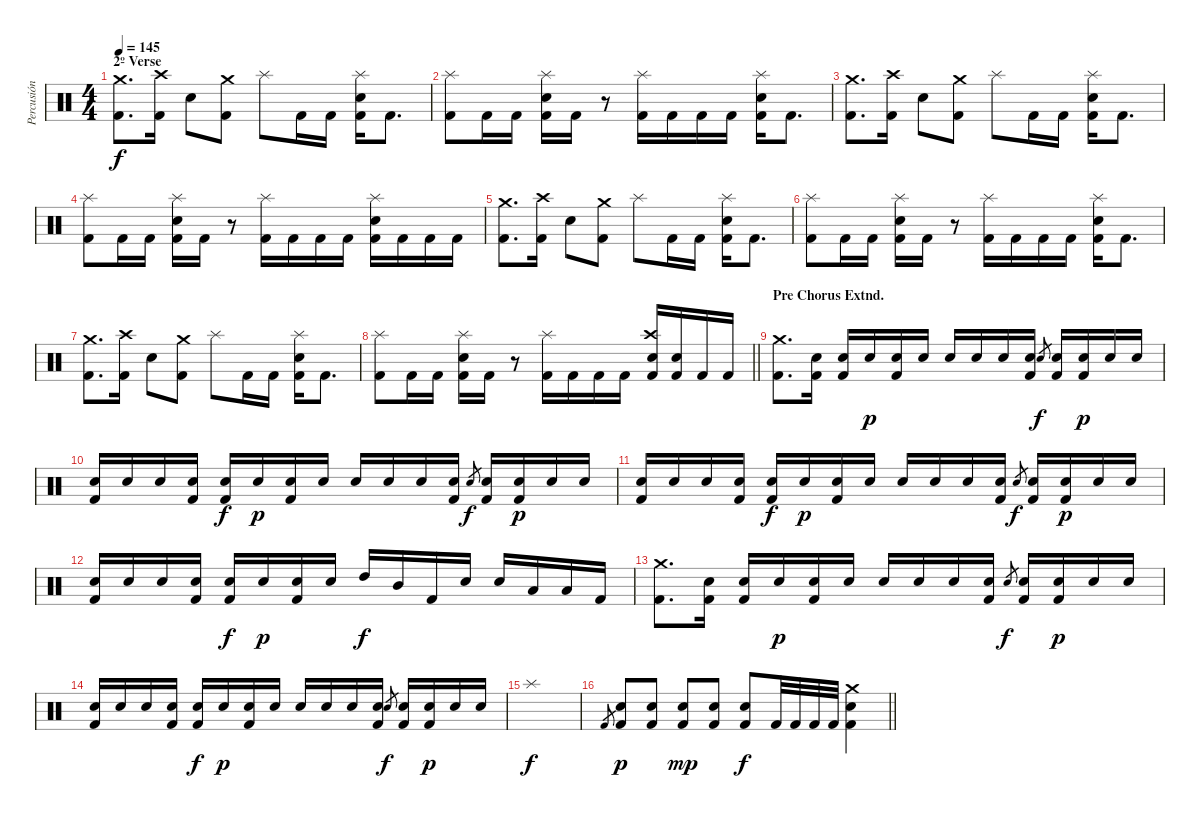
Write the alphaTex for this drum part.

\track ("Percusión" "Percusión") {instrument percussion}
\staff {score}
\articulation defaults
\ts (4 4)
\section ("" "2º Verse")
\tempo 145
\clef neutral
\ks c
("Crash medium (hit)" "Kick (hit) 2").8{d dy f} ("Crash high (hit)" "Kick (hit) 2").16 "Electric Snare (hit)".8 ("Crash medium (hit)" "Kick (hit) 2").8 "Splash (hit)".8 "Kick (hit) 2".16 "Kick (hit) 2".16 ("Splash (hit)" "Electric Snare (hit)" "Kick (hit) 2").16 "Kick (hit) 2".8{d} |
("Splash (hit)" "Kick (hit) 2").8 "Kick (hit) 2".16 "Kick (hit) 2".16 ("Splash (hit)" "Electric Snare (hit)" "Kick (hit) 2").16 "Kick (hit) 2".16 r.8 ("Splash (hit)" "Kick (hit) 2").16 "Kick (hit) 2".16 "Kick (hit) 2".16 "Kick (hit) 2".16 ("Splash (hit)" "Electric Snare (hit)" "Kick (hit) 2").16 "Kick (hit) 2".8{d} |
("Crash medium (hit)" "Kick (hit) 2").8{d} ("Crash high (hit)" "Kick (hit) 2").16 "Electric Snare (hit)".8 ("Crash medium (hit)" "Kick (hit) 2").8 "Splash (hit)".8 "Kick (hit) 2".16 "Kick (hit) 2".16 ("Splash (hit)" "Electric Snare (hit)" "Kick (hit) 2").16 "Kick (hit) 2".8{d} |
("Splash (hit)" "Kick (hit) 2").8 "Kick (hit) 2".16 "Kick (hit) 2".16 ("Splash (hit)" "Electric Snare (hit)" "Kick (hit) 2").16 "Kick (hit) 2".16 r.8 ("Splash (hit)" "Kick (hit) 2").16 "Kick (hit) 2".16 "Kick (hit) 2".16 "Kick (hit) 2".16 ("Splash (hit)" "Electric Snare (hit)" "Kick (hit) 2").16 "Kick (hit) 2".16 "Kick (hit) 2".16 "Kick (hit) 2".16 |
("Crash medium (hit)" "Kick (hit) 2").8{d} ("Crash high (hit)" "Kick (hit) 2").16 "Electric Snare (hit)".8 ("Crash medium (hit)" "Kick (hit) 2").8 "Splash (hit)".8 "Kick (hit) 2".16 "Kick (hit) 2".16 ("Splash (hit)" "Electric Snare (hit)" "Kick (hit) 2").16 "Kick (hit) 2".8{d} |
("Splash (hit)" "Kick (hit) 2").8 "Kick (hit) 2".16 "Kick (hit) 2".16 ("Splash (hit)" "Electric Snare (hit)" "Kick (hit) 2").16 "Kick (hit) 2".16 r.8 ("Splash (hit)" "Kick (hit) 2").16 "Kick (hit) 2".16 "Kick (hit) 2".16 "Kick (hit) 2".16 ("Splash (hit)" "Electric Snare (hit)" "Kick (hit) 2").16 "Kick (hit) 2".8{d} |
("Crash medium (hit)" "Kick (hit) 2").8{d} ("Crash high (hit)" "Kick (hit) 2").16 "Electric Snare (hit)".8 ("Crash medium (hit)" "Kick (hit) 2").8 "Splash (hit)".8 "Kick (hit) 2".16 "Kick (hit) 2".16 ("Splash (hit)" "Electric Snare (hit)" "Kick (hit) 2").16 "Kick (hit) 2".8{d} |
\barLineRight lightlight
("Splash (hit)" "Kick (hit) 2").8 "Kick (hit) 2".16 "Kick (hit) 2".16 ("Splash (hit)" "Electric Snare (hit)" "Kick (hit) 2").16 "Kick (hit) 2".16 r.8 ("Splash (hit)" "Kick (hit) 2").16 "Kick (hit) 2".16 "Kick (hit) 2".16 "Kick (hit) 2".16 ("Crash high (hit)" "Electric Snare (hit)" "Kick (hit) 2").16 ("Electric Snare (hit)" "Kick (hit) 2").16 "Kick (hit) 2".16 "Kick (hit) 2".16 |
\section ("" "Pre Chorus Extnd.")
("Crash medium (hit)" "Kick (hit) 2").8{d} ("Electric Snare (hit)" "Kick (hit) 2").16 ("Electric Snare (hit)" "Kick (hit) 2").16 "Electric Snare (hit)".16{dy p} ("Electric Snare (hit)" "Kick (hit) 2").16 "Electric Snare (hit)".16 "Electric Snare (hit)".16 "Electric Snare (hit)".16 "Electric Snare (hit)".16 ("Electric Snare (hit)" "Kick (hit) 2").16 "Electric Snare (hit)".8{gr dy f} ("Electric Snare (hit)" "Kick (hit) 2").16 ("Electric Snare (hit)" "Kick (hit) 2").16{dy p} "Electric Snare (hit)".16 "Electric Snare (hit)".16 |
("Electric Snare (hit)" "Kick (hit) 2").16 "Electric Snare (hit)".16 "Electric Snare (hit)".16 ("Electric Snare (hit)" "Kick (hit) 2").16 ("Electric Snare (hit)" "Kick (hit) 2").16{dy f} "Electric Snare (hit)".16{dy p} ("Electric Snare (hit)" "Kick (hit) 2").16 "Electric Snare (hit)".16 "Electric Snare (hit)".16 "Electric Snare (hit)".16 "Electric Snare (hit)".16 ("Electric Snare (hit)" "Kick (hit) 2").16 "Electric Snare (hit)".8{gr dy f} ("Electric Snare (hit)" "Kick (hit) 2").16 ("Electric Snare (hit)" "Kick (hit) 2").16{dy p} "Electric Snare (hit)".16 "Electric Snare (hit)".16 |
("Electric Snare (hit)" "Kick (hit) 2").16 "Electric Snare (hit)".16 "Electric Snare (hit)".16 ("Electric Snare (hit)" "Kick (hit) 2").16 ("Electric Snare (hit)" "Kick (hit) 2").16{dy f} "Electric Snare (hit)".16{dy p} ("Electric Snare (hit)" "Kick (hit) 2").16 "Electric Snare (hit)".16 "Electric Snare (hit)".16 "Electric Snare (hit)".16 "Electric Snare (hit)".16 ("Electric Snare (hit)" "Kick (hit) 2").16 "Electric Snare (hit)".8{gr dy f} ("Electric Snare (hit)" "Kick (hit) 2").16 ("Electric Snare (hit)" "Kick (hit) 2").16{dy p} "Electric Snare (hit)".16 "Electric Snare (hit)".16 |
("Electric Snare (hit)" "Kick (hit) 2").16 "Electric Snare (hit)".16 "Electric Snare (hit)".16 ("Electric Snare (hit)" "Kick (hit) 2").16 ("Electric Snare (hit)" "Kick (hit) 2").16{dy f} "Electric Snare (hit)".16{dy p} ("Electric Snare (hit)" "Kick (hit) 2").16 "Electric Snare (hit)".16 "High Tom (hit)".16{dy f} "Mid Tom (hit)".16 "Kick (hit) 2".16 "Electric Snare (hit)".16 "Electric Snare (hit)".16 "Low Tom (hit)".16 "Low Tom (hit)".16 "Kick (hit) 2".16 |
("Crash medium (hit)" "Kick (hit) 2").8{d} ("Electric Snare (hit)" "Kick (hit) 2").16 ("Electric Snare (hit)" "Kick (hit) 2").16 "Electric Snare (hit)".16{dy p} ("Electric Snare (hit)" "Kick (hit) 2").16 "Electric Snare (hit)".16 "Electric Snare (hit)".16 "Electric Snare (hit)".16 "Electric Snare (hit)".16 ("Electric Snare (hit)" "Kick (hit) 2").16 "Electric Snare (hit)".8{gr dy f} ("Electric Snare (hit)" "Kick (hit) 2").16 ("Electric Snare (hit)" "Kick (hit) 2").16{dy p} "Electric Snare (hit)".16 "Electric Snare (hit)".16 |
("Electric Snare (hit)" "Kick (hit) 2").16 "Electric Snare (hit)".16 "Electric Snare (hit)".16 ("Electric Snare (hit)" "Kick (hit) 2").16 ("Electric Snare (hit)" "Kick (hit) 2").16{dy f} "Electric Snare (hit)".16{dy p} ("Electric Snare (hit)" "Kick (hit) 2").16 "Electric Snare (hit)".16 "Electric Snare (hit)".16 "Electric Snare (hit)".16 "Electric Snare (hit)".16 ("Electric Snare (hit)" "Kick (hit) 2").16 "Electric Snare (hit)".8{gr dy f} ("Electric Snare (hit)" "Kick (hit) 2").16 ("Electric Snare (hit)" "Kick (hit) 2").16{dy p} "Electric Snare (hit)".16 "Electric Snare (hit)".16 |
"Splash (hit)".1{dy f} |
\barLineRight lightlight "Kick (hit) 2".8{gr}
("Electric Snare (hit)" "Kick (hit) 2").8{dy p} ("Electric Snare (hit)" "Kick (hit) 2").8 ("Electric Snare (hit)" "Kick (hit) 2").8{dy mp} ("Electric Snare (hit)" "Kick (hit) 2").8 ("Electric Snare (hit)" "Kick (hit) 2").8{dy f} "Kick (hit) 2".32 "Kick (hit) 2".32 "Kick (hit) 2".32 "Kick (hit) 2".32 ("Crash medium (hit)" "Electric Snare (hit)" "Kick (hit) 2").4
